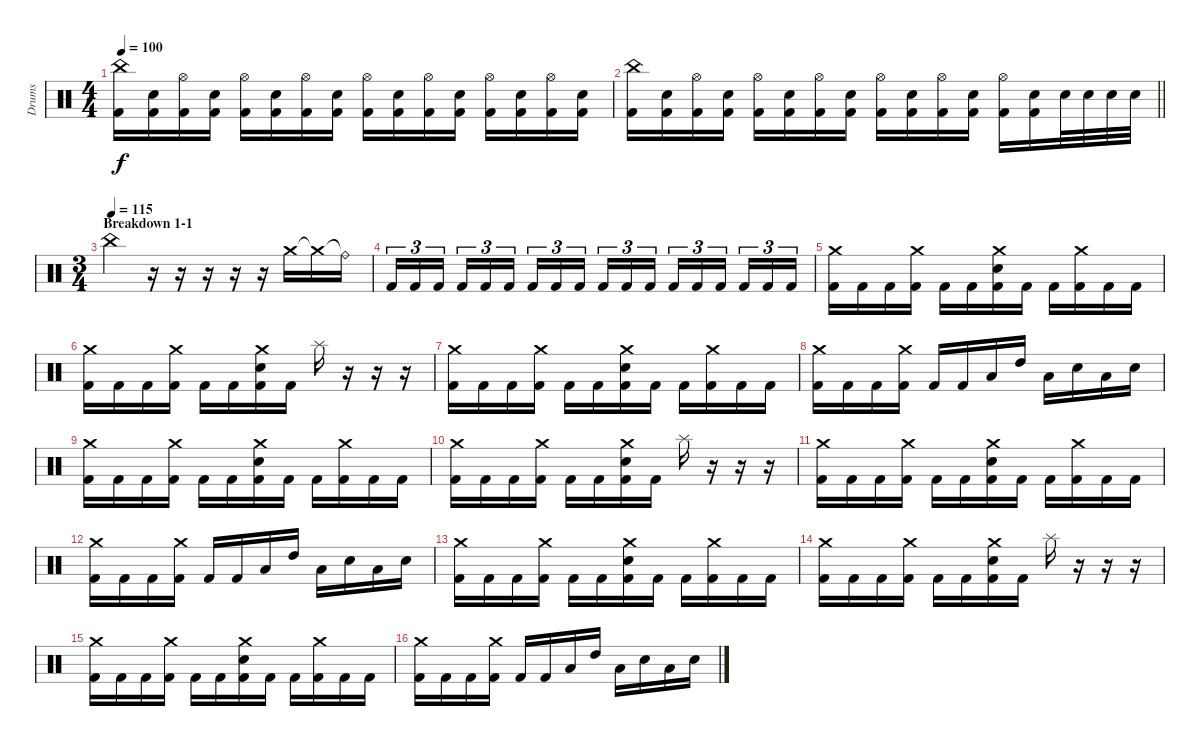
\track ("Drums" "Drums") {instrument percussion}
\staff {score}
\articulation defaults
\ts (4 4)
\tempo 100
\clef neutral
\ks c
("Kick (hit) 2" "China (hit)").16{dy f} ("Kick (hit) 2" "Electric Snare (hit)").16 ("Kick (hit) 2" "Hi-Hat (open)").16 ("Kick (hit) 2" "Electric Snare (hit)").16 ("Kick (hit) 2" "Hi-Hat (open)").16 ("Kick (hit) 2" "Electric Snare (hit)").16 ("Kick (hit) 2" "Hi-Hat (open)").16 ("Kick (hit) 2" "Electric Snare (hit)").16 ("Kick (hit) 2" "Hi-Hat (open)").16 ("Kick (hit) 2" "Electric Snare (hit)").16 ("Kick (hit) 2" "Hi-Hat (open)").16 ("Kick (hit) 2" "Electric Snare (hit)").16 ("Kick (hit) 2" "Hi-Hat (open)").16 ("Kick (hit) 2" "Electric Snare (hit)").16 ("Kick (hit) 2" "Hi-Hat (open)").16 ("Kick (hit) 2" "Electric Snare (hit)").16 |
\barLineRight lightlight
("Kick (hit) 2" "China (hit)").16 ("Kick (hit) 2" "Electric Snare (hit)").16 ("Kick (hit) 2" "Hi-Hat (open)").16 ("Kick (hit) 2" "Electric Snare (hit)").16 ("Kick (hit) 2" "Hi-Hat (open)").16 ("Kick (hit) 2" "Electric Snare (hit)").16 ("Kick (hit) 2" "Hi-Hat (open)").16 ("Kick (hit) 2" "Electric Snare (hit)").16 ("Kick (hit) 2" "Hi-Hat (open)").16 ("Kick (hit) 2" "Electric Snare (hit)").16 ("Kick (hit) 2" "Hi-Hat (open)").16 ("Kick (hit) 2" "Electric Snare (hit)").16 ("Kick (hit) 2" "Hi-Hat (open)").16 ("Kick (hit) 2" "Electric Snare (hit)").16 "Electric Snare (hit)".32 "Electric Snare (hit)".32 "Electric Snare (hit)".32 "Electric Snare (hit)".32 |
\ts (3 4)
\section ("" "Breakdown 1-1")
\tempo (115)
"China (hit)".4 r.16 r.16 r.16 r.16 r.16 "Crash medium (hit)".16 "Crash medium (hit)"{t}.16 "Ride (bell)"{t}.16 |
"Kick (hit) 2".16{tu (3 2)} "Kick (hit) 2".16{tu (3 2)} "Kick (hit) 2".16{tu (3 2) beam splitsecondary} "Kick (hit) 2".16{tu (3 2)} "Kick (hit) 2".16{tu (3 2)} "Kick (hit) 2".16{tu (3 2)} "Kick (hit) 2".16{tu (3 2)} "Kick (hit) 2".16{tu (3 2)} "Kick (hit) 2".16{tu (3 2) beam splitsecondary} "Kick (hit) 2".16{tu (3 2)} "Kick (hit) 2".16{tu (3 2)} "Kick (hit) 2".16{tu (3 2)} "Kick (hit) 2".16{tu (3 2)} "Kick (hit) 2".16{tu (3 2)} "Kick (hit) 2".16{tu (3 2) beam splitsecondary} "Kick (hit) 2".16{tu (3 2)} "Kick (hit) 2".16{tu (3 2)} "Kick (hit) 2".16{tu (3 2)} |
("Kick (hit) 2" "Crash medium (hit)").16 "Kick (hit) 2".16 "Kick (hit) 2".16 ("Kick (hit) 2" "Crash medium (hit)").16 "Kick (hit) 2".16 "Kick (hit) 2".16 ("Kick (hit) 2" "Electric Snare (hit)" "Crash medium (hit)").16 "Kick (hit) 2".16 "Kick (hit) 2".16 ("Kick (hit) 2" "Crash medium (hit)").16 "Kick (hit) 2".16 "Kick (hit) 2".16 |
("Kick (hit) 2" "Crash medium (hit)").16 "Kick (hit) 2".16 "Kick (hit) 2".16 ("Kick (hit) 2" "Crash medium (hit)").16 "Kick (hit) 2".16 "Kick (hit) 2".16 ("Kick (hit) 2" "Electric Snare (hit)" "Crash medium (hit)").16 "Kick (hit) 2".16 "Splash (hit)".16 r.16 r.16 r.16 |
("Kick (hit) 2" "Crash medium (hit)").16 "Kick (hit) 2".16 "Kick (hit) 2".16 ("Kick (hit) 2" "Crash medium (hit)").16 "Kick (hit) 2".16 "Kick (hit) 2".16 ("Kick (hit) 2" "Electric Snare (hit)" "Crash medium (hit)").16 "Kick (hit) 2".16 "Kick (hit) 2".16 ("Kick (hit) 2" "Crash medium (hit)").16 "Kick (hit) 2".16 "Kick (hit) 2".16 |
("Kick (hit) 2" "Crash medium (hit)").16 "Kick (hit) 2".16 "Kick (hit) 2".16 ("Kick (hit) 2" "Crash medium (hit)").16 "Kick (hit) 2".16 "Kick (hit) 2".16 "Low Tom (hit)".16 "High Tom (hit)".16 "Low Tom (hit)".16 "Electric Snare (hit)".16 "Low Tom (hit)".16 "Electric Snare (hit)".16 |
("Kick (hit) 2" "Crash medium (hit)").16 "Kick (hit) 2".16 "Kick (hit) 2".16 ("Kick (hit) 2" "Crash medium (hit)").16 "Kick (hit) 2".16 "Kick (hit) 2".16 ("Kick (hit) 2" "Electric Snare (hit)" "Crash medium (hit)").16 "Kick (hit) 2".16 "Kick (hit) 2".16 ("Kick (hit) 2" "Crash medium (hit)").16 "Kick (hit) 2".16 "Kick (hit) 2".16 |
("Kick (hit) 2" "Crash medium (hit)").16 "Kick (hit) 2".16 "Kick (hit) 2".16 ("Kick (hit) 2" "Crash medium (hit)").16 "Kick (hit) 2".16 "Kick (hit) 2".16 ("Kick (hit) 2" "Electric Snare (hit)" "Crash medium (hit)").16 "Kick (hit) 2".16 "Splash (hit)".16 r.16 r.16 r.16 |
("Kick (hit) 2" "Crash medium (hit)").16 "Kick (hit) 2".16 "Kick (hit) 2".16 ("Kick (hit) 2" "Crash medium (hit)").16 "Kick (hit) 2".16 "Kick (hit) 2".16 ("Kick (hit) 2" "Electric Snare (hit)" "Crash medium (hit)").16 "Kick (hit) 2".16 "Kick (hit) 2".16 ("Kick (hit) 2" "Crash medium (hit)").16 "Kick (hit) 2".16 "Kick (hit) 2".16 |
("Kick (hit) 2" "Crash medium (hit)").16 "Kick (hit) 2".16 "Kick (hit) 2".16 ("Kick (hit) 2" "Crash medium (hit)").16 "Kick (hit) 2".16 "Kick (hit) 2".16 "Low Tom (hit)".16 "High Tom (hit)".16 "Low Tom (hit)".16 "Electric Snare (hit)".16 "Low Tom (hit)".16 "Electric Snare (hit)".16 |
("Kick (hit) 2" "Crash medium (hit)").16 "Kick (hit) 2".16 "Kick (hit) 2".16 ("Kick (hit) 2" "Crash medium (hit)").16 "Kick (hit) 2".16 "Kick (hit) 2".16 ("Kick (hit) 2" "Electric Snare (hit)" "Crash medium (hit)").16 "Kick (hit) 2".16 "Kick (hit) 2".16 ("Kick (hit) 2" "Crash medium (hit)").16 "Kick (hit) 2".16 "Kick (hit) 2".16 |
("Kick (hit) 2" "Crash medium (hit)").16 "Kick (hit) 2".16 "Kick (hit) 2".16 ("Kick (hit) 2" "Crash medium (hit)").16 "Kick (hit) 2".16 "Kick (hit) 2".16 ("Kick (hit) 2" "Electric Snare (hit)" "Crash medium (hit)").16 "Kick (hit) 2".16 "Splash (hit)".16 r.16 r.16 r.16 |
("Kick (hit) 2" "Crash medium (hit)").16 "Kick (hit) 2".16 "Kick (hit) 2".16 ("Kick (hit) 2" "Crash medium (hit)").16 "Kick (hit) 2".16 "Kick (hit) 2".16 ("Kick (hit) 2" "Electric Snare (hit)" "Crash medium (hit)").16 "Kick (hit) 2".16 "Kick (hit) 2".16 ("Kick (hit) 2" "Crash medium (hit)").16 "Kick (hit) 2".16 "Kick (hit) 2".16 |
("Kick (hit) 2" "Crash medium (hit)").16 "Kick (hit) 2".16 "Kick (hit) 2".16 ("Kick (hit) 2" "Crash medium (hit)").16 "Kick (hit) 2".16 "Kick (hit) 2".16 "Low Tom (hit)".16 "High Tom (hit)".16 "Low Tom (hit)".16 "Electric Snare (hit)".16 "Low Tom (hit)".16 "Electric Snare (hit)".16
